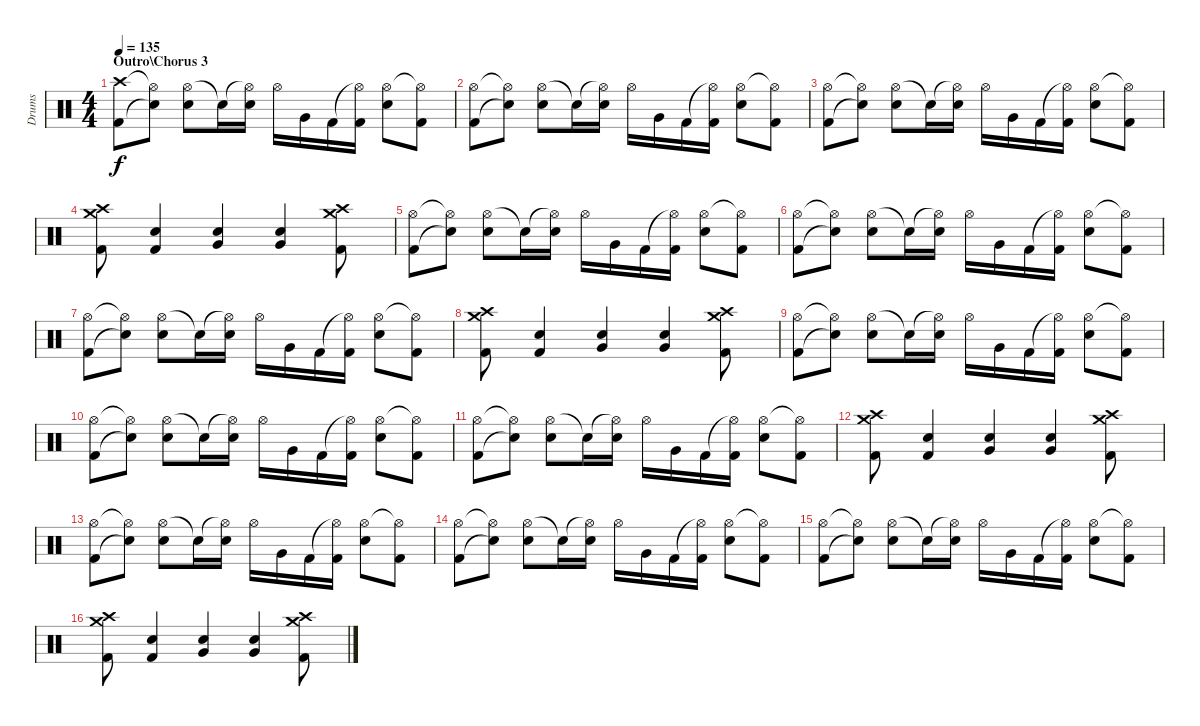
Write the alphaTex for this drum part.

\track ("Drums" "Drums") {instrument percussion}
\staff {score}
\articulation defaults
\ts (4 4)
\section ("" "Outro\\Chorus 3")
\tempo 135
\clef neutral
\ks c
("Crash high (hit)" "Kick (hit) 2").8{dy f} ("Hi-Hat (open)"{t} "Snare (hit)"{t}).8 ("Hi-Hat (open)" "Electric Snare (hit)").8 "Snare (hit)"{t}.16 ("Hi-Hat (open)"{t} "Electric Snare (hit)").16 "Hi-Hat (open)".16 "Very Low Tom (hit)".16 "Kick (hit) 2".16 ("Hi-Hat (open)"{t} "Kick (hit) 2").16 ("Hi-Hat (open)" "Electric Snare (hit)").8 ("Hi-Hat (open)"{t} "Kick (hit) 2").8 |
("Hi-Hat (open)" "Kick (hit) 2").8 ("Hi-Hat (open)"{t} "Snare (hit)"{t}).8 ("Hi-Hat (open)" "Electric Snare (hit)").8 "Snare (hit)"{t}.16 ("Hi-Hat (open)"{t} "Electric Snare (hit)").16 "Hi-Hat (open)".16 "Very Low Tom (hit)".16 "Kick (hit) 2".16 ("Hi-Hat (open)"{t} "Kick (hit) 2").16 ("Hi-Hat (open)" "Electric Snare (hit)").8 ("Hi-Hat (open)"{t} "Kick (hit) 2").8 |
("Hi-Hat (open)" "Kick (hit) 2").8 ("Hi-Hat (open)"{t} "Snare (hit)"{t}).8 ("Hi-Hat (open)" "Electric Snare (hit)").8 "Snare (hit)"{t}.16 ("Hi-Hat (open)"{t} "Electric Snare (hit)").16 "Hi-Hat (open)".16 "Very Low Tom (hit)".16 "Kick (hit) 2".16 ("Hi-Hat (open)"{t} "Kick (hit) 2").16 ("Hi-Hat (open)" "Electric Snare (hit)").8 ("Hi-Hat (open)"{t} "Kick (hit) 2").8 |
("Crash high (hit)" "Crash medium (hit)" "Kick (hit) 2").8 ("Electric Snare (hit)" "Kick (hit) 2").4 ("Very Low Tom (hit)" "Electric Snare (hit)").4 ("Very Low Tom (hit)" "Electric Snare (hit)").4 ("Crash high (hit)" "Crash medium (hit)" "Kick (hit) 2").8 |
("Hi-Hat (open)" "Kick (hit) 2").8 ("Hi-Hat (open)"{t} "Snare (hit)"{t}).8 ("Hi-Hat (open)" "Electric Snare (hit)").8 "Snare (hit)"{t}.16 ("Hi-Hat (open)"{t} "Electric Snare (hit)").16 "Hi-Hat (open)".16 "Very Low Tom (hit)".16 "Kick (hit) 2".16 ("Hi-Hat (open)"{t} "Kick (hit) 2").16 ("Hi-Hat (open)" "Electric Snare (hit)").8 ("Hi-Hat (open)"{t} "Kick (hit) 2").8 |
("Hi-Hat (open)" "Kick (hit) 2").8 ("Hi-Hat (open)"{t} "Snare (hit)"{t}).8 ("Hi-Hat (open)" "Electric Snare (hit)").8 "Snare (hit)"{t}.16 ("Hi-Hat (open)"{t} "Electric Snare (hit)").16 "Hi-Hat (open)".16 "Very Low Tom (hit)".16 "Kick (hit) 2".16 ("Hi-Hat (open)"{t} "Kick (hit) 2").16 ("Hi-Hat (open)" "Electric Snare (hit)").8 ("Hi-Hat (open)"{t} "Kick (hit) 2").8 |
("Hi-Hat (open)" "Kick (hit) 2").8 ("Hi-Hat (open)"{t} "Snare (hit)"{t}).8 ("Hi-Hat (open)" "Electric Snare (hit)").8 "Snare (hit)"{t}.16 ("Hi-Hat (open)"{t} "Electric Snare (hit)").16 "Hi-Hat (open)".16 "Very Low Tom (hit)".16 "Kick (hit) 2".16 ("Hi-Hat (open)"{t} "Kick (hit) 2").16 ("Hi-Hat (open)" "Electric Snare (hit)").8 ("Hi-Hat (open)"{t} "Kick (hit) 2").8 |
("Crash high (hit)" "Crash medium (hit)" "Kick (hit) 2").8 ("Electric Snare (hit)" "Kick (hit) 2").4 ("Very Low Tom (hit)" "Electric Snare (hit)").4 ("Very Low Tom (hit)" "Electric Snare (hit)").4 ("Crash high (hit)" "Crash medium (hit)" "Kick (hit) 2").8 |
("Hi-Hat (open)" "Kick (hit) 2").8 ("Hi-Hat (open)"{t} "Snare (hit)"{t}).8 ("Hi-Hat (open)" "Electric Snare (hit)").8 "Snare (hit)"{t}.16 ("Hi-Hat (open)"{t} "Electric Snare (hit)").16 "Hi-Hat (open)".16 "Very Low Tom (hit)".16 "Kick (hit) 2".16 ("Hi-Hat (open)"{t} "Kick (hit) 2").16 ("Hi-Hat (open)" "Electric Snare (hit)").8 ("Hi-Hat (open)"{t} "Kick (hit) 2").8 |
("Hi-Hat (open)" "Kick (hit) 2").8 ("Hi-Hat (open)"{t} "Snare (hit)"{t}).8 ("Hi-Hat (open)" "Electric Snare (hit)").8 "Snare (hit)"{t}.16 ("Hi-Hat (open)"{t} "Electric Snare (hit)").16 "Hi-Hat (open)".16 "Very Low Tom (hit)".16 "Kick (hit) 2".16 ("Hi-Hat (open)"{t} "Kick (hit) 2").16 ("Hi-Hat (open)" "Electric Snare (hit)").8 ("Hi-Hat (open)"{t} "Kick (hit) 2").8 |
("Hi-Hat (open)" "Kick (hit) 2").8 ("Hi-Hat (open)"{t} "Snare (hit)"{t}).8 ("Hi-Hat (open)" "Electric Snare (hit)").8 "Snare (hit)"{t}.16 ("Hi-Hat (open)"{t} "Electric Snare (hit)").16 "Hi-Hat (open)".16 "Very Low Tom (hit)".16 "Kick (hit) 2".16 ("Hi-Hat (open)"{t} "Kick (hit) 2").16 ("Hi-Hat (open)" "Electric Snare (hit)").8 ("Hi-Hat (open)"{t} "Kick (hit) 2").8 |
("Crash high (hit)" "Crash medium (hit)" "Kick (hit) 2").8 ("Electric Snare (hit)" "Kick (hit) 2").4 ("Very Low Tom (hit)" "Electric Snare (hit)").4 ("Very Low Tom (hit)" "Electric Snare (hit)").4 ("Crash high (hit)" "Crash medium (hit)" "Kick (hit) 2").8 |
("Hi-Hat (open)" "Kick (hit) 2").8 ("Hi-Hat (open)"{t} "Snare (hit)"{t}).8 ("Hi-Hat (open)" "Electric Snare (hit)").8 "Snare (hit)"{t}.16 ("Hi-Hat (open)"{t} "Electric Snare (hit)").16 "Hi-Hat (open)".16 "Very Low Tom (hit)".16 "Kick (hit) 2".16 ("Hi-Hat (open)"{t} "Kick (hit) 2").16 ("Hi-Hat (open)" "Electric Snare (hit)").8 ("Hi-Hat (open)"{t} "Kick (hit) 2").8 |
("Hi-Hat (open)" "Kick (hit) 2").8 ("Hi-Hat (open)"{t} "Snare (hit)"{t}).8 ("Hi-Hat (open)" "Electric Snare (hit)").8 "Snare (hit)"{t}.16 ("Hi-Hat (open)"{t} "Electric Snare (hit)").16 "Hi-Hat (open)".16 "Very Low Tom (hit)".16 "Kick (hit) 2".16 ("Hi-Hat (open)"{t} "Kick (hit) 2").16 ("Hi-Hat (open)" "Electric Snare (hit)").8 ("Hi-Hat (open)"{t} "Kick (hit) 2").8 |
("Hi-Hat (open)" "Kick (hit) 2").8 ("Hi-Hat (open)"{t} "Snare (hit)"{t}).8 ("Hi-Hat (open)" "Electric Snare (hit)").8 "Snare (hit)"{t}.16 ("Hi-Hat (open)"{t} "Electric Snare (hit)").16 "Hi-Hat (open)".16 "Very Low Tom (hit)".16 "Kick (hit) 2".16 ("Hi-Hat (open)"{t} "Kick (hit) 2").16 ("Hi-Hat (open)" "Electric Snare (hit)").8 ("Hi-Hat (open)"{t} "Kick (hit) 2").8 |
("Crash high (hit)" "Crash medium (hit)" "Kick (hit) 2").8 ("Electric Snare (hit)" "Kick (hit) 2").4 ("Very Low Tom (hit)" "Electric Snare (hit)").4 ("Very Low Tom (hit)" "Electric Snare (hit)").4 ("Crash high (hit)" "Crash medium (hit)" "Kick (hit) 2").8
